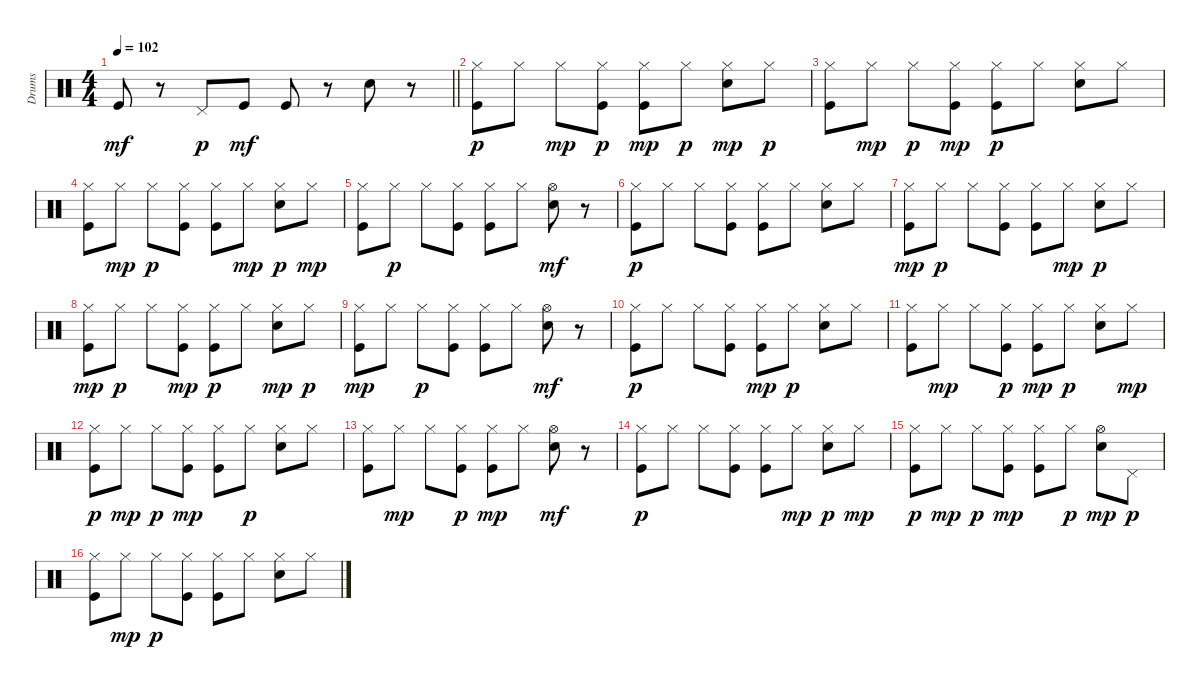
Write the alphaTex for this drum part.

\track ("Drums" "Drums") {instrument percussion}
\staff {score}
\articulation defaults
\ts (4 4)
\tempo 102
\clef neutral
\barLineRight lightlight
\ks c "Kick (hit)".8{dy mf}
r.8 "Pedal Hi-Hat (hit)".8{dy p} "Kick (hit)".8{dy mf} "Kick (hit)".8 r.8 "Snare (hit) 2".8 r.8 |
("Kick (hit)" "Hi-Hat (closed)").8{dy p} "Hi-Hat (closed)".8 "Hi-Hat (closed)".8{dy mp} ("Kick (hit)" "Hi-Hat (closed)").8{dy p} ("Kick (hit)" "Hi-Hat (closed)").8{dy mp} "Hi-Hat (closed)".8{dy p} ("Snare (hit) 2" "Hi-Hat (closed)").8{dy mp} "Hi-Hat (closed)".8{dy p} |
("Kick (hit)" "Hi-Hat (closed)").8 "Hi-Hat (closed)".8{dy mp} "Hi-Hat (closed)".8{dy p} ("Kick (hit)" "Hi-Hat (closed)").8{dy mp} ("Kick (hit)" "Hi-Hat (closed)").8{dy p} "Hi-Hat (closed)".8 ("Snare (hit) 2" "Hi-Hat (closed)").8 "Hi-Hat (closed)".8 |
("Kick (hit)" "Hi-Hat (closed)").8 "Hi-Hat (closed)".8{dy mp} "Hi-Hat (closed)".8{dy p} ("Kick (hit)" "Hi-Hat (closed)").8 ("Kick (hit)" "Hi-Hat (closed)").8 "Hi-Hat (closed)".8{dy mp} ("Snare (hit) 2" "Hi-Hat (closed)").8{dy p} "Hi-Hat (closed)".8{dy mp} |
("Kick (hit)" "Hi-Hat (closed)").8 "Hi-Hat (closed)".8{dy p} "Hi-Hat (closed)".8 ("Kick (hit)" "Hi-Hat (closed)").8 ("Kick (hit)" "Hi-Hat (closed)").8 "Hi-Hat (closed)".8 ("Hi-Hat (open)" "Snare (hit) 2").8{dy mf} r.8 |
("Kick (hit)" "Hi-Hat (closed)").8{dy p} "Hi-Hat (closed)".8 "Hi-Hat (closed)".8 ("Kick (hit)" "Hi-Hat (closed)").8 ("Kick (hit)" "Hi-Hat (closed)").8 "Hi-Hat (closed)".8 ("Snare (hit) 2" "Hi-Hat (closed)").8 "Hi-Hat (closed)".8 |
("Kick (hit)" "Hi-Hat (closed)").8{dy mp} "Hi-Hat (closed)".8{dy p} "Hi-Hat (closed)".8 ("Kick (hit)" "Hi-Hat (closed)").8 ("Kick (hit)" "Hi-Hat (closed)").8 "Hi-Hat (closed)".8{dy mp} ("Snare (hit) 2" "Hi-Hat (closed)").8{dy p} "Hi-Hat (closed)".8 |
("Kick (hit)" "Hi-Hat (closed)").8{dy mp} "Hi-Hat (closed)".8{dy p} "Hi-Hat (closed)".8 ("Kick (hit)" "Hi-Hat (closed)").8{dy mp} ("Kick (hit)" "Hi-Hat (closed)").8{dy p} "Hi-Hat (closed)".8 ("Snare (hit) 2" "Hi-Hat (closed)").8{dy mp} "Hi-Hat (closed)".8{dy p} |
("Kick (hit)" "Hi-Hat (closed)").8{dy mp} "Hi-Hat (closed)".8 "Hi-Hat (closed)".8{dy p} ("Kick (hit)" "Hi-Hat (closed)").8 ("Kick (hit)" "Hi-Hat (closed)").8 "Hi-Hat (closed)".8 ("Hi-Hat (open)" "Snare (hit) 2").8{dy mf} r.8 |
("Kick (hit)" "Hi-Hat (closed)").8{dy p} "Hi-Hat (closed)".8 "Hi-Hat (closed)".8 ("Kick (hit)" "Hi-Hat (closed)").8 ("Kick (hit)" "Hi-Hat (closed)").8{dy mp} "Hi-Hat (closed)".8{dy p} ("Snare (hit) 2" "Hi-Hat (closed)").8 "Hi-Hat (closed)".8 |
("Kick (hit)" "Hi-Hat (closed)").8 "Hi-Hat (closed)".8{dy mp} "Hi-Hat (closed)".8 ("Kick (hit)" "Hi-Hat (closed)").8{dy p} ("Kick (hit)" "Hi-Hat (closed)").8{dy mp} "Hi-Hat (closed)".8{dy p} ("Snare (hit) 2" "Hi-Hat (closed)").8 "Hi-Hat (closed)".8{dy mp} |
("Kick (hit)" "Hi-Hat (closed)").8{dy p} "Hi-Hat (closed)".8{dy mp} "Hi-Hat (closed)".8{dy p} ("Kick (hit)" "Hi-Hat (closed)").8{dy mp} ("Kick (hit)" "Hi-Hat (closed)").8 "Hi-Hat (closed)".8{dy p} ("Snare (hit) 2" "Hi-Hat (closed)").8 "Hi-Hat (closed)".8 |
("Kick (hit)" "Hi-Hat (closed)").8 "Hi-Hat (closed)".8{dy mp} "Hi-Hat (closed)".8 ("Kick (hit)" "Hi-Hat (closed)").8{dy p} ("Kick (hit)" "Hi-Hat (closed)").8{dy mp} "Hi-Hat (closed)".8 ("Hi-Hat (open)" "Snare (hit) 2").8{dy mf} r.8 |
("Kick (hit)" "Hi-Hat (closed)").8{dy p} "Hi-Hat (closed)".8 "Hi-Hat (closed)".8 ("Kick (hit)" "Hi-Hat (closed)").8 ("Kick (hit)" "Hi-Hat (closed)").8 "Hi-Hat (closed)".8{dy mp} ("Snare (hit) 2" "Hi-Hat (closed)").8{dy p} "Hi-Hat (closed)".8{dy mp} |
("Kick (hit)" "Hi-Hat (closed)").8{dy p} "Hi-Hat (closed)".8{dy mp} "Hi-Hat (closed)".8{dy p} ("Kick (hit)" "Hi-Hat (closed)").8{dy mp} ("Kick (hit)" "Hi-Hat (closed)").8 "Hi-Hat (closed)".8{dy p} ("Snare (hit) 2" "Hi-Hat (open)").8{dy mp} "Pedal Hi-Hat (hit)".8{dy p} |
("Kick (hit)" "Hi-Hat (closed)").8 "Hi-Hat (closed)".8{dy mp} "Hi-Hat (closed)".8{dy p} ("Kick (hit)" "Hi-Hat (closed)").8 ("Kick (hit)" "Hi-Hat (closed)").8 "Hi-Hat (closed)".8 ("Snare (hit) 2" "Hi-Hat (closed)").8 "Hi-Hat (closed)".8
